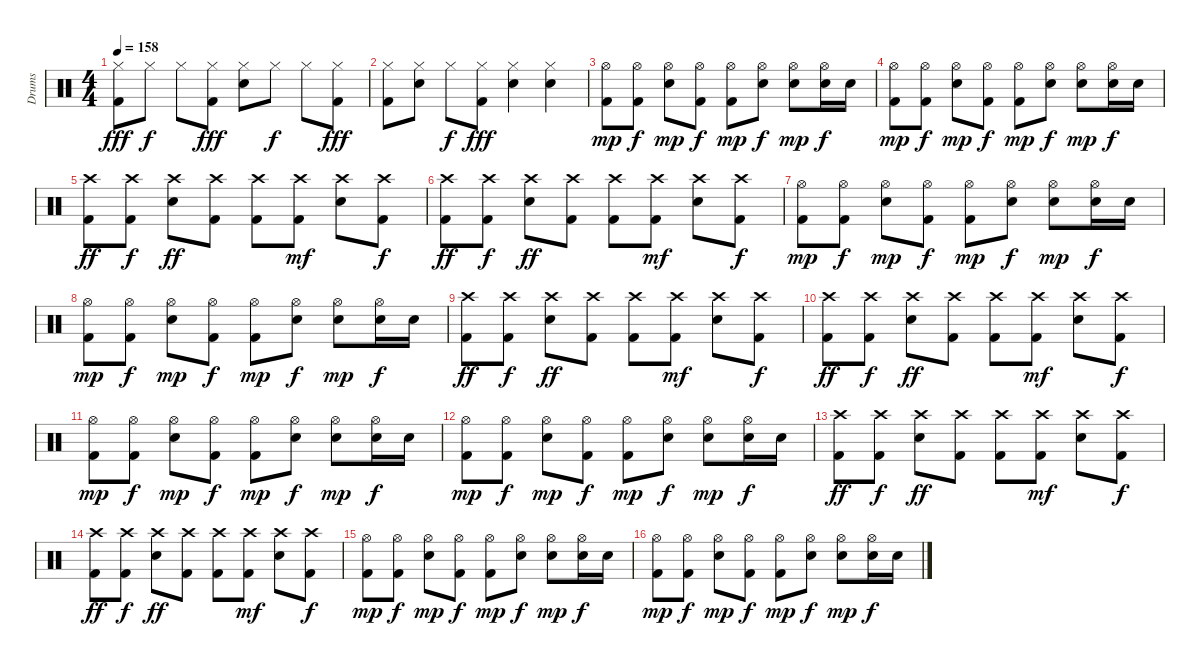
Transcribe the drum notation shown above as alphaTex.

\track ("Drums" "Drums") {instrument percussion}
\staff {score}
\articulation defaults
\ts (4 4)
\tempo 158
\clef neutral
\ks c
("Hi-Hat (closed)" "Kick (hit) 2").8{dy fff} "Hi-Hat (closed)".8{dy f} "Hi-Hat (closed)".8 ("Hi-Hat (closed)" "Kick (hit) 2").8{dy fff} ("Hi-Hat (closed)" "Snare (hit) 2").8 "Hi-Hat (closed)".8{dy f} "Hi-Hat (closed)".8 ("Hi-Hat (closed)" "Kick (hit) 2").8{dy fff} |
("Hi-Hat (closed)" "Kick (hit) 2").8 ("Hi-Hat (closed)" "Snare (hit) 2").8 "Hi-Hat (closed)".8{dy f} ("Hi-Hat (closed)" "Kick (hit) 2").8{dy fff} ("Hi-Hat (closed)" "Snare (hit) 2").4 ("Hi-Hat (closed)" "Snare (hit) 2").4 |
("Hi-Hat (open)" "Kick (hit) 2").8{dy mp} ("Hi-Hat (open)" "Kick (hit) 2").8{dy f} ("Hi-Hat (open)" "Snare (hit) 2").8{dy mp} ("Hi-Hat (open)" "Kick (hit) 2").8{dy f} ("Hi-Hat (open)" "Kick (hit) 2").8{dy mp} ("Hi-Hat (open)" "Snare (hit) 2").8{dy f} ("Hi-Hat (open)" "Snare (hit) 2").8{dy mp} ("Hi-Hat (open)" "Snare (hit) 2").16{dy f} "Snare (hit) 2".16 |
("Hi-Hat (open)" "Kick (hit) 2").8{dy mp} ("Hi-Hat (open)" "Kick (hit) 2").8{dy f} ("Hi-Hat (open)" "Snare (hit) 2").8{dy mp} ("Hi-Hat (open)" "Kick (hit) 2").8{dy f} ("Hi-Hat (open)" "Kick (hit) 2").8{dy mp} ("Hi-Hat (open)" "Snare (hit) 2").8{dy f} ("Hi-Hat (open)" "Snare (hit) 2").8{dy mp} ("Hi-Hat (open)" "Snare (hit) 2").16{dy f} "Snare (hit) 2".16 |
("Crash high (hit)" "Kick (hit) 2").8{dy ff} ("Crash high (hit)" "Kick (hit) 2").8{dy f} ("Crash high (hit)" "Snare (hit) 2").8{dy ff} ("Crash high (hit)" "Kick (hit) 2").8 ("Crash high (hit)" "Kick (hit) 2").8 ("Crash high (hit)" "Kick (hit) 2").8{dy mf} ("Crash high (hit)" "Snare (hit) 2").8 ("Crash high (hit)" "Kick (hit) 2").8{dy f} |
("Crash high (hit)" "Kick (hit) 2").8{dy ff} ("Crash high (hit)" "Kick (hit) 2").8{dy f} ("Crash high (hit)" "Snare (hit) 2").8{dy ff} ("Crash high (hit)" "Kick (hit) 2").8 ("Crash high (hit)" "Kick (hit) 2").8 ("Crash high (hit)" "Kick (hit) 2").8{dy mf} ("Crash high (hit)" "Snare (hit) 2").8 ("Crash high (hit)" "Kick (hit) 2").8{dy f} |
("Hi-Hat (open)" "Kick (hit) 2").8{dy mp} ("Hi-Hat (open)" "Kick (hit) 2").8{dy f} ("Hi-Hat (open)" "Snare (hit) 2").8{dy mp} ("Hi-Hat (open)" "Kick (hit) 2").8{dy f} ("Hi-Hat (open)" "Kick (hit) 2").8{dy mp} ("Hi-Hat (open)" "Snare (hit) 2").8{dy f} ("Hi-Hat (open)" "Snare (hit) 2").8{dy mp} ("Hi-Hat (open)" "Snare (hit) 2").16{dy f} "Snare (hit) 2".16 |
("Hi-Hat (open)" "Kick (hit) 2").8{dy mp} ("Hi-Hat (open)" "Kick (hit) 2").8{dy f} ("Hi-Hat (open)" "Snare (hit) 2").8{dy mp} ("Hi-Hat (open)" "Kick (hit) 2").8{dy f} ("Hi-Hat (open)" "Kick (hit) 2").8{dy mp} ("Hi-Hat (open)" "Snare (hit) 2").8{dy f} ("Hi-Hat (open)" "Snare (hit) 2").8{dy mp} ("Hi-Hat (open)" "Snare (hit) 2").16{dy f} "Snare (hit) 2".16 |
("Crash high (hit)" "Kick (hit) 2").8{dy ff} ("Crash high (hit)" "Kick (hit) 2").8{dy f} ("Crash high (hit)" "Snare (hit) 2").8{dy ff} ("Crash high (hit)" "Kick (hit) 2").8 ("Crash high (hit)" "Kick (hit) 2").8 ("Crash high (hit)" "Kick (hit) 2").8{dy mf} ("Crash high (hit)" "Snare (hit) 2").8 ("Crash high (hit)" "Kick (hit) 2").8{dy f} |
("Crash high (hit)" "Kick (hit) 2").8{dy ff} ("Crash high (hit)" "Kick (hit) 2").8{dy f} ("Crash high (hit)" "Snare (hit) 2").8{dy ff} ("Crash high (hit)" "Kick (hit) 2").8 ("Crash high (hit)" "Kick (hit) 2").8 ("Crash high (hit)" "Kick (hit) 2").8{dy mf} ("Crash high (hit)" "Snare (hit) 2").8 ("Crash high (hit)" "Kick (hit) 2").8{dy f} |
("Hi-Hat (open)" "Kick (hit) 2").8{dy mp} ("Hi-Hat (open)" "Kick (hit) 2").8{dy f} ("Hi-Hat (open)" "Snare (hit) 2").8{dy mp} ("Hi-Hat (open)" "Kick (hit) 2").8{dy f} ("Hi-Hat (open)" "Kick (hit) 2").8{dy mp} ("Hi-Hat (open)" "Snare (hit) 2").8{dy f} ("Hi-Hat (open)" "Snare (hit) 2").8{dy mp} ("Hi-Hat (open)" "Snare (hit) 2").16{dy f} "Snare (hit) 2".16 |
("Hi-Hat (open)" "Kick (hit) 2").8{dy mp} ("Hi-Hat (open)" "Kick (hit) 2").8{dy f} ("Hi-Hat (open)" "Snare (hit) 2").8{dy mp} ("Hi-Hat (open)" "Kick (hit) 2").8{dy f} ("Hi-Hat (open)" "Kick (hit) 2").8{dy mp} ("Hi-Hat (open)" "Snare (hit) 2").8{dy f} ("Hi-Hat (open)" "Snare (hit) 2").8{dy mp} ("Hi-Hat (open)" "Snare (hit) 2").16{dy f} "Snare (hit) 2".16 |
("Crash high (hit)" "Kick (hit) 2").8{dy ff} ("Crash high (hit)" "Kick (hit) 2").8{dy f} ("Crash high (hit)" "Snare (hit) 2").8{dy ff} ("Crash high (hit)" "Kick (hit) 2").8 ("Crash high (hit)" "Kick (hit) 2").8 ("Crash high (hit)" "Kick (hit) 2").8{dy mf} ("Crash high (hit)" "Snare (hit) 2").8 ("Crash high (hit)" "Kick (hit) 2").8{dy f} |
("Crash high (hit)" "Kick (hit) 2").8{dy ff} ("Crash high (hit)" "Kick (hit) 2").8{dy f} ("Crash high (hit)" "Snare (hit) 2").8{dy ff} ("Crash high (hit)" "Kick (hit) 2").8 ("Crash high (hit)" "Kick (hit) 2").8 ("Crash high (hit)" "Kick (hit) 2").8{dy mf} ("Crash high (hit)" "Snare (hit) 2").8 ("Crash high (hit)" "Kick (hit) 2").8{dy f} |
("Hi-Hat (open)" "Kick (hit) 2").8{dy mp} ("Hi-Hat (open)" "Kick (hit) 2").8{dy f} ("Hi-Hat (open)" "Snare (hit) 2").8{dy mp} ("Hi-Hat (open)" "Kick (hit) 2").8{dy f} ("Hi-Hat (open)" "Kick (hit) 2").8{dy mp} ("Hi-Hat (open)" "Snare (hit) 2").8{dy f} ("Hi-Hat (open)" "Snare (hit) 2").8{dy mp} ("Hi-Hat (open)" "Snare (hit) 2").16{dy f} "Snare (hit) 2".16 |
("Hi-Hat (open)" "Kick (hit) 2").8{dy mp} ("Hi-Hat (open)" "Kick (hit) 2").8{dy f} ("Hi-Hat (open)" "Snare (hit) 2").8{dy mp} ("Hi-Hat (open)" "Kick (hit) 2").8{dy f} ("Hi-Hat (open)" "Kick (hit) 2").8{dy mp} ("Hi-Hat (open)" "Snare (hit) 2").8{dy f} ("Hi-Hat (open)" "Snare (hit) 2").8{dy mp} ("Hi-Hat (open)" "Snare (hit) 2").16{dy f} "Snare (hit) 2".16
